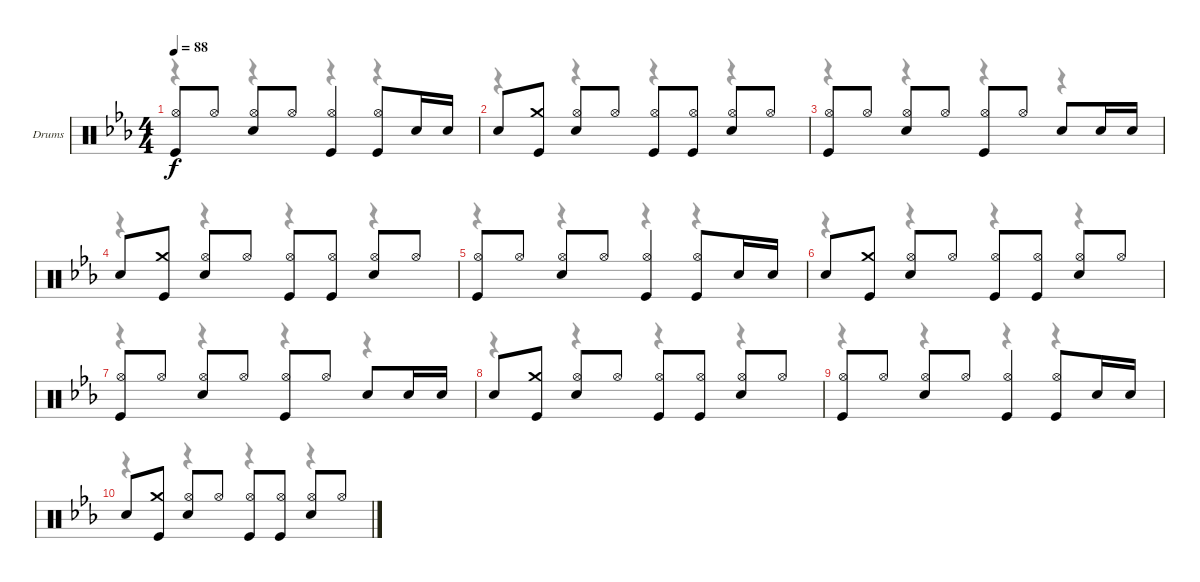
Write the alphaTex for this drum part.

\bracketExtendMode groupsimilarinstruments
\firstSystemTrackNameOrientation horizontal
\otherSystemsTrackNameOrientation horizontal
\track ("Ian Paice - Drums" "Drums") {instrument percussion}
\staff {score}
\articulation defaults
\voice
\ts (4 4)
\tempo 88
\clef neutral
\ks cminor
("Hi-Hat (open)" "Kick (hit)").8{dy f} "Hi-Hat (open)".8 ("Hi-Hat (open)" "Snare (hit) 2").8 "Hi-Hat (open)".8 ("Hi-Hat (open)" "Kick (hit)").4 ("Hi-Hat (open)" "Kick (hit)").8 "Snare (hit) 2".16 "Snare (hit) 2".16 |
"Snare (hit) 2".8 ("Crash medium (hit)" "Kick (hit)").8 ("Hi-Hat (open)" "Snare (hit) 2").8 "Hi-Hat (open)".8 ("Hi-Hat (open)" "Kick (hit)").8 ("Hi-Hat (open)" "Kick (hit)").8 ("Hi-Hat (open)" "Snare (hit) 2").8 "Hi-Hat (open)".8 |
("Hi-Hat (open)" "Kick (hit)").8 "Hi-Hat (open)".8 ("Hi-Hat (open)" "Snare (hit) 2").8 "Hi-Hat (open)".8 ("Hi-Hat (open)" "Kick (hit)").8 "Hi-Hat (open)".8 "Snare (hit) 2".8 "Snare (hit) 2".16 "Snare (hit) 2".16 |
"Snare (hit) 2".8 ("Crash medium (hit)" "Kick (hit)").8 ("Hi-Hat (open)" "Snare (hit) 2").8 "Hi-Hat (open)".8 ("Hi-Hat (open)" "Kick (hit)").8 ("Hi-Hat (open)" "Kick (hit)").8 ("Hi-Hat (open)" "Snare (hit) 2").8 "Hi-Hat (open)".8 |
("Hi-Hat (open)" "Kick (hit)").8 "Hi-Hat (open)".8 ("Hi-Hat (open)" "Snare (hit) 2").8 "Hi-Hat (open)".8 ("Hi-Hat (open)" "Kick (hit)").4 ("Hi-Hat (open)" "Kick (hit)").8 "Snare (hit) 2".16 "Snare (hit) 2".16 |
"Snare (hit) 2".8 ("Crash medium (hit)" "Kick (hit)").8 ("Hi-Hat (open)" "Snare (hit) 2").8 "Hi-Hat (open)".8 ("Hi-Hat (open)" "Kick (hit)").8 ("Hi-Hat (open)" "Kick (hit)").8 ("Hi-Hat (open)" "Snare (hit) 2").8 "Hi-Hat (open)".8 |
("Hi-Hat (open)" "Kick (hit)").8 "Hi-Hat (open)".8 ("Hi-Hat (open)" "Snare (hit) 2").8 "Hi-Hat (open)".8 ("Hi-Hat (open)" "Kick (hit)").8 "Hi-Hat (open)".8 "Snare (hit) 2".8 "Snare (hit) 2".16 "Snare (hit) 2".16 |
"Snare (hit) 2".8 ("Crash medium (hit)" "Kick (hit)").8 ("Hi-Hat (open)" "Snare (hit) 2").8 "Hi-Hat (open)".8 ("Hi-Hat (open)" "Kick (hit)").8 ("Hi-Hat (open)" "Kick (hit)").8 ("Hi-Hat (open)" "Snare (hit) 2").8 "Hi-Hat (open)".8 |
("Hi-Hat (open)" "Kick (hit)").8 "Hi-Hat (open)".8 ("Hi-Hat (open)" "Snare (hit) 2").8 "Hi-Hat (open)".8 ("Hi-Hat (open)" "Kick (hit)").4 ("Hi-Hat (open)" "Kick (hit)").8 "Snare (hit) 2".16 "Snare (hit) 2".16 |
"Snare (hit) 2".8 ("Crash medium (hit)" "Kick (hit)").8 ("Hi-Hat (open)" "Snare (hit) 2").8 "Hi-Hat (open)".8 ("Hi-Hat (open)" "Kick (hit)").8 ("Hi-Hat (open)" "Kick (hit)").8 ("Hi-Hat (open)" "Snare (hit) 2").8 "Hi-Hat (open)".8
\voice
\clef neutral
\ottava regular
\simile none
\ks cminor
r.4{dy mf} r.4 r.4 r.4 |
r.4 r.4 r.4 r.4 |
r.4 r.4 r.4 r.4 |
r.4 r.4 r.4 r.4 |
r.4 r.4 r.4 r.4 |
r.4 r.4 r.4 r.4 |
r.4 r.4 r.4 r.4 |
r.4 r.4 r.4 r.4 |
r.4 r.4 r.4 r.4 |
r.4 r.4 r.4 r.4
